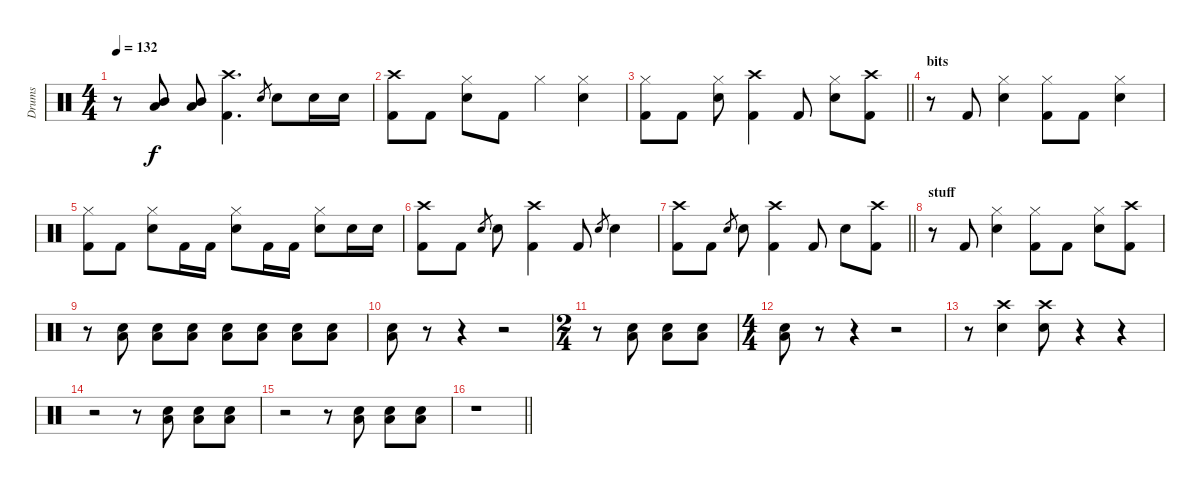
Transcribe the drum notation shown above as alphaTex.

\track ("Drums" "Drums") {instrument percussion}
\staff {score}
\articulation defaults
\ts (4 4)
\tempo 132
\clef neutral
\ks c
r.8{dy f} ("Mid Tom (hit)" "Low Tom (hit)").8 ("Mid Tom (hit)" "Low Tom (hit)").8 ("Crash high (hit)" "Kick (hit) 2").4{d} "Electric Snare (hit)".8{gr} "Electric Snare (hit)".8 "Electric Snare (hit)".16 "Electric Snare (hit)".16 |
("Crash high (hit)" "Kick (hit) 2").8 "Kick (hit) 2".8 ("Hi-Hat (closed)" "Electric Snare (hit)").8 "Kick (hit) 2".8 "Hi-Hat (closed)".4 ("Hi-Hat (closed)" "Electric Snare (hit)").4 |
\barLineRight lightlight
("Hi-Hat (closed)" "Kick (hit) 2").8 "Kick (hit) 2".8 ("Hi-Hat (closed)" "Electric Snare (hit)").8 ("Crash high (hit)" "Kick (hit) 2").4 "Kick (hit) 2".8 ("Hi-Hat (closed)" "Electric Snare (hit)").8 ("Crash high (hit)" "Kick (hit) 2").8 |
\section ("" "bits")
r.8 "Kick (hit) 2".8 ("Hi-Hat (closed)" "Electric Snare (hit)").4 ("Hi-Hat (closed)" "Kick (hit) 2").8 "Kick (hit) 2".8 ("Hi-Hat (closed)" "Electric Snare (hit)").4 |
("Hi-Hat (closed)" "Kick (hit) 2").8 "Kick (hit) 2".8 ("Hi-Hat (closed)" "Electric Snare (hit)").8 "Kick (hit) 2".16 "Kick (hit) 2".16 ("Hi-Hat (closed)" "Electric Snare (hit)").8 "Kick (hit) 2".16 "Kick (hit) 2".16 ("Hi-Hat (closed)" "Electric Snare (hit)").8 "Electric Snare (hit)".16 "Electric Snare (hit)".16 |
("Crash high (hit)" "Kick (hit) 2").8 "Kick (hit) 2".8 "Electric Snare (hit)".8{gr} "Electric Snare (hit)".8 ("Crash high (hit)" "Kick (hit) 2").4 "Kick (hit) 2".8 "Electric Snare (hit)".8{gr} "Electric Snare (hit)".4 |
\barLineRight lightlight
("Crash high (hit)" "Kick (hit) 2").8 "Kick (hit) 2".8 "Electric Snare (hit)".8{gr} "Electric Snare (hit)".8 ("Crash high (hit)" "Kick (hit) 2").4 "Kick (hit) 2".8 "Electric Snare (hit)".8 ("Crash high (hit)" "Kick (hit) 2").8 |
\section ("" "stuff")
r.8 "Kick (hit) 2".8 ("Hi-Hat (closed)" "Electric Snare (hit)").4 ("Hi-Hat (closed)" "Kick (hit) 2").8 "Kick (hit) 2".8 ("Hi-Hat (closed)" "Electric Snare (hit)").8 ("Crash high (hit)" "Kick (hit) 2").8 |
r.8 ("Electric Snare (hit)" "Low Tom (hit)").8 ("Electric Snare (hit)" "Low Tom (hit)").8 ("Electric Snare (hit)" "Low Tom (hit)").8 ("Electric Snare (hit)" "Low Tom (hit)").8 ("Electric Snare (hit)" "Low Tom (hit)").8 ("Electric Snare (hit)" "Low Tom (hit)").8 ("Electric Snare (hit)" "Low Tom (hit)").8 |
("Electric Snare (hit)" "Low Tom (hit)").8 r.8 r.4 r.2 |
\ts (2 4)
r.8 ("Electric Snare (hit)" "Low Tom (hit)").8 ("Electric Snare (hit)" "Low Tom (hit)").8 ("Electric Snare (hit)" "Low Tom (hit)").8 |
\ts (4 4)
("Electric Snare (hit)" "Low Tom (hit)").8 r.8 r.4 r.2 |
r.8 ("Crash high (hit)" "Electric Snare (hit)").4 ("Crash high (hit)" "Electric Snare (hit)").8 r.4 r.4 |
r.2 r.8 ("Electric Snare (hit)" "Low Tom (hit)").8 ("Electric Snare (hit)" "Low Tom (hit)").8 ("Electric Snare (hit)" "Low Tom (hit)").8 |
r.2 r.8 ("Electric Snare (hit)" "Low Tom (hit)").8 ("Electric Snare (hit)" "Low Tom (hit)").8 ("Electric Snare (hit)" "Low Tom (hit)").8 |
\barLineRight lightlight
r.1
